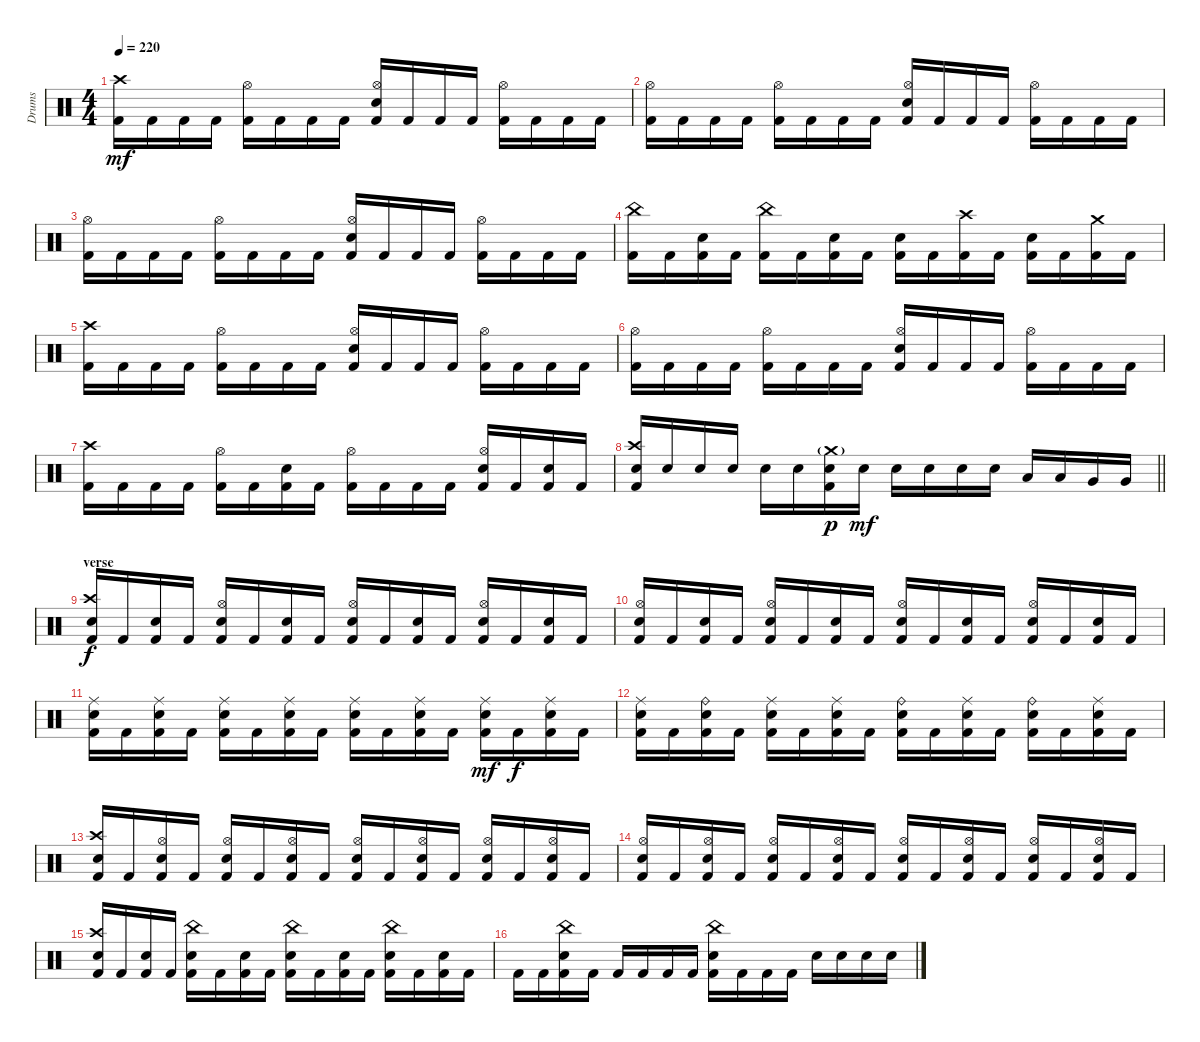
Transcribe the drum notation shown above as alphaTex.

\track ("Drums" "Drums") {instrument percussion}
\staff {score}
\articulation defaults
\ts (4 4)
\tempo 220
\clef neutral
\ks c
("Kick (hit) 2" "Crash high (hit)").16{dy mf} "Kick (hit) 2".16 "Kick (hit) 2".16 "Kick (hit) 2".16 ("Kick (hit) 2" "Hi-Hat (open)").16 "Kick (hit) 2".16 "Kick (hit) 2".16 "Kick (hit) 2".16 ("Kick (hit) 2" "Electric Snare (hit)" "Hi-Hat (open)").16 "Kick (hit) 2".16 "Kick (hit) 2".16 "Kick (hit) 2".16 ("Kick (hit) 2" "Hi-Hat (open)").16 "Kick (hit) 2".16 "Kick (hit) 2".16 "Kick (hit) 2".16 |
("Kick (hit) 2" "Hi-Hat (open)").16 "Kick (hit) 2".16 "Kick (hit) 2".16 "Kick (hit) 2".16 ("Kick (hit) 2" "Hi-Hat (open)").16 "Kick (hit) 2".16 "Kick (hit) 2".16 "Kick (hit) 2".16 ("Kick (hit) 2" "Electric Snare (hit)" "Hi-Hat (open)").16 "Kick (hit) 2".16 "Kick (hit) 2".16 "Kick (hit) 2".16 ("Kick (hit) 2" "Hi-Hat (open)").16 "Kick (hit) 2".16 "Kick (hit) 2".16 "Kick (hit) 2".16 |
("Kick (hit) 2" "Hi-Hat (open)").16 "Kick (hit) 2".16 "Kick (hit) 2".16 "Kick (hit) 2".16 ("Kick (hit) 2" "Hi-Hat (open)").16 "Kick (hit) 2".16 "Kick (hit) 2".16 "Kick (hit) 2".16 ("Kick (hit) 2" "Electric Snare (hit)" "Hi-Hat (open)").16 "Kick (hit) 2".16 "Kick (hit) 2".16 "Kick (hit) 2".16 ("Kick (hit) 2" "Hi-Hat (open)").16 "Kick (hit) 2".16 "Kick (hit) 2".16 "Kick (hit) 2".16 |
("Kick (hit) 2" "China (hit)").16 "Kick (hit) 2".16 ("Kick (hit) 2" "Electric Snare (hit)").16 "Kick (hit) 2".16 ("Kick (hit) 2" "China (hit)").16 "Kick (hit) 2".16 ("Kick (hit) 2" "Electric Snare (hit)").16 "Kick (hit) 2".16 ("Kick (hit) 2" "Electric Snare (hit)").16 "Kick (hit) 2".16 ("Kick (hit) 2" "Crash high (hit)").16 "Kick (hit) 2".16 ("Kick (hit) 2" "Electric Snare (hit)").16 "Kick (hit) 2".16 ("Kick (hit) 2" "Crash medium (hit)").16 "Kick (hit) 2".16 |
("Kick (hit) 2" "Crash high (hit)").16 "Kick (hit) 2".16 "Kick (hit) 2".16 "Kick (hit) 2".16 ("Kick (hit) 2" "Hi-Hat (open)").16 "Kick (hit) 2".16 "Kick (hit) 2".16 "Kick (hit) 2".16 ("Kick (hit) 2" "Electric Snare (hit)" "Hi-Hat (open)").16 "Kick (hit) 2".16 "Kick (hit) 2".16 "Kick (hit) 2".16 ("Kick (hit) 2" "Hi-Hat (open)").16 "Kick (hit) 2".16 "Kick (hit) 2".16 "Kick (hit) 2".16 |
("Kick (hit) 2" "Hi-Hat (open)").16 "Kick (hit) 2".16 "Kick (hit) 2".16 "Kick (hit) 2".16 ("Kick (hit) 2" "Hi-Hat (open)").16 "Kick (hit) 2".16 "Kick (hit) 2".16 "Kick (hit) 2".16 ("Kick (hit) 2" "Electric Snare (hit)" "Hi-Hat (open)").16 "Kick (hit) 2".16 "Kick (hit) 2".16 "Kick (hit) 2".16 ("Kick (hit) 2" "Hi-Hat (open)").16 "Kick (hit) 2".16 "Kick (hit) 2".16 "Kick (hit) 2".16 |
("Kick (hit) 2" "Crash high (hit)").16 "Kick (hit) 2".16 "Kick (hit) 2".16 "Kick (hit) 2".16 ("Kick (hit) 2" "Hi-Hat (open)").16 "Kick (hit) 2".16 ("Kick (hit) 2" "Electric Snare (hit)").16 "Kick (hit) 2".16 ("Kick (hit) 2" "Hi-Hat (open)").16 "Kick (hit) 2".16 "Kick (hit) 2".16 "Kick (hit) 2".16 ("Kick (hit) 2" "Electric Snare (hit)" "Hi-Hat (open)").16 "Kick (hit) 2".16 ("Kick (hit) 2" "Electric Snare (hit)").16 "Kick (hit) 2".16 |
\barLineRight lightlight
("Electric Snare (hit)" "Kick (hit) 2" "Crash high (hit)").16 "Electric Snare (hit)".16 "Electric Snare (hit)".16 "Electric Snare (hit)".16 "Electric Snare (hit)".16 "Electric Snare (hit)".16 ("Electric Snare (hit)" "Kick (hit) 2" "Crash medium (hit)"{g}).16{dy p} "Electric Snare (hit)".16{dy mf} "Electric Snare (hit)".16 "Electric Snare (hit)".16 "Electric Snare (hit)".16 "Electric Snare (hit)".16 "Low Tom (hit)".16 "Low Tom (hit)".16 "Very Low Tom (hit)".16 "Very Low Tom (hit)".16 |
\section ("" "verse ")
("Electric Snare (hit)" "Kick (hit) 2" "Crash high (hit)").16{dy f} "Kick (hit) 2".16 ("Electric Snare (hit)" "Kick (hit) 2").16 "Kick (hit) 2".16 ("Electric Snare (hit)" "Kick (hit) 2" "Hi-Hat (open)").16 "Kick (hit) 2".16 ("Electric Snare (hit)" "Kick (hit) 2").16 "Kick (hit) 2".16 ("Electric Snare (hit)" "Kick (hit) 2" "Hi-Hat (open)").16 "Kick (hit) 2".16 ("Electric Snare (hit)" "Kick (hit) 2").16 "Kick (hit) 2".16 ("Electric Snare (hit)" "Kick (hit) 2" "Hi-Hat (open)").16 "Kick (hit) 2".16 ("Electric Snare (hit)" "Kick (hit) 2").16 "Kick (hit) 2".16 |
("Electric Snare (hit)" "Kick (hit) 2" "Hi-Hat (open)").16 "Kick (hit) 2".16 ("Electric Snare (hit)" "Kick (hit) 2").16 "Kick (hit) 2".16 ("Electric Snare (hit)" "Kick (hit) 2" "Hi-Hat (open)").16 "Kick (hit) 2".16 ("Electric Snare (hit)" "Kick (hit) 2").16 "Kick (hit) 2".16 ("Electric Snare (hit)" "Kick (hit) 2" "Hi-Hat (open)").16 "Kick (hit) 2".16 ("Electric Snare (hit)" "Kick (hit) 2").16 "Kick (hit) 2".16 ("Electric Snare (hit)" "Kick (hit) 2" "Hi-Hat (open)").16 "Kick (hit) 2".16 ("Electric Snare (hit)" "Kick (hit) 2").16 "Kick (hit) 2".16 |
("Electric Snare (hit)" "Kick (hit) 2" "Ride (middle)").16 "Kick (hit) 2".16 ("Electric Snare (hit)" "Kick (hit) 2" "Ride (middle)").16 "Kick (hit) 2".16 ("Electric Snare (hit)" "Kick (hit) 2" "Ride (middle)").16 "Kick (hit) 2".16 ("Electric Snare (hit)" "Kick (hit) 2" "Ride (middle)").16 "Kick (hit) 2".16 ("Electric Snare (hit)" "Kick (hit) 2" "Ride (middle)").16 "Kick (hit) 2".16 ("Electric Snare (hit)" "Kick (hit) 2" "Ride (middle)").16 "Kick (hit) 2".16 ("Electric Snare (hit)" "Kick (hit) 2" "Ride (middle)").16{dy mf} "Kick (hit) 2".16{dy f} ("Electric Snare (hit)" "Kick (hit) 2" "Ride (middle)").16 "Kick (hit) 2".16 |
("Electric Snare (hit)" "Kick (hit) 2" "Ride (middle)").16 "Kick (hit) 2".16 ("Electric Snare (hit)" "Kick (hit) 2" "Ride (bell)").16 "Kick (hit) 2".16 ("Electric Snare (hit)" "Kick (hit) 2" "Ride (middle)").16 "Kick (hit) 2".16 ("Electric Snare (hit)" "Kick (hit) 2" "Ride (middle)").16 "Kick (hit) 2".16 ("Electric Snare (hit)" "Kick (hit) 2" "Ride (bell)").16 "Kick (hit) 2".16 ("Electric Snare (hit)" "Kick (hit) 2" "Ride (middle)").16 "Kick (hit) 2".16 ("Electric Snare (hit)" "Kick (hit) 2" "Ride (bell)").16 "Kick (hit) 2".16 ("Electric Snare (hit)" "Kick (hit) 2" "Ride (middle)").16 "Kick (hit) 2".16 |
("Electric Snare (hit)" "Kick (hit) 2" "Crash high (hit)").16 "Kick (hit) 2".16 ("Electric Snare (hit)" "Kick (hit) 2" "Hi-Hat (open)").16 "Kick (hit) 2".16 ("Electric Snare (hit)" "Kick (hit) 2" "Hi-Hat (open)").16 "Kick (hit) 2".16 ("Electric Snare (hit)" "Kick (hit) 2" "Hi-Hat (open)").16 "Kick (hit) 2".16 ("Electric Snare (hit)" "Kick (hit) 2" "Hi-Hat (open)").16 "Kick (hit) 2".16 ("Electric Snare (hit)" "Kick (hit) 2" "Hi-Hat (open)").16 "Kick (hit) 2".16 ("Electric Snare (hit)" "Kick (hit) 2" "Hi-Hat (open)").16 "Kick (hit) 2".16 ("Electric Snare (hit)" "Kick (hit) 2" "Hi-Hat (open)").16 "Kick (hit) 2".16 |
("Electric Snare (hit)" "Kick (hit) 2" "Hi-Hat (open)").16 "Kick (hit) 2".16 ("Electric Snare (hit)" "Kick (hit) 2" "Hi-Hat (open)").16 "Kick (hit) 2".16 ("Electric Snare (hit)" "Kick (hit) 2" "Hi-Hat (open)").16 "Kick (hit) 2".16 ("Electric Snare (hit)" "Kick (hit) 2" "Hi-Hat (open)").16 "Kick (hit) 2".16 ("Electric Snare (hit)" "Kick (hit) 2" "Hi-Hat (open)").16 "Kick (hit) 2".16 ("Electric Snare (hit)" "Kick (hit) 2" "Hi-Hat (open)").16 "Kick (hit) 2".16 ("Electric Snare (hit)" "Kick (hit) 2" "Hi-Hat (open)").16 "Kick (hit) 2".16 ("Electric Snare (hit)" "Kick (hit) 2" "Hi-Hat (open)").16 "Kick (hit) 2".16 |
("Kick (hit) 2" "Electric Snare (hit)" "Crash high (hit)").16 "Kick (hit) 2".16 ("Kick (hit) 2" "Electric Snare (hit)").16 "Kick (hit) 2".16 ("Kick (hit) 2" "Electric Snare (hit)" "China (hit)").16 "Kick (hit) 2".16 ("Kick (hit) 2" "Electric Snare (hit)").16 "Kick (hit) 2".16 ("Kick (hit) 2" "Electric Snare (hit)" "China (hit)").16 "Kick (hit) 2".16 ("Kick (hit) 2" "Electric Snare (hit)").16 "Kick (hit) 2".16 ("Kick (hit) 2" "Electric Snare (hit)" "China (hit)").16 "Kick (hit) 2".16 ("Kick (hit) 2" "Electric Snare (hit)").16 "Kick (hit) 2".16 |
"Kick (hit) 2".16 "Kick (hit) 2".16 ("Kick (hit) 2" "Electric Snare (hit)" "China (hit)").16 "Kick (hit) 2".16 "Kick (hit) 2".16 "Kick (hit) 2".16 "Kick (hit) 2".16 "Kick (hit) 2".16 ("Kick (hit) 2" "Electric Snare (hit)" "China (hit)").16 "Kick (hit) 2".16 "Kick (hit) 2".16 "Kick (hit) 2".16 "Electric Snare (hit)".16 "Electric Snare (hit)".16 "Electric Snare (hit)".16 "Electric Snare (hit)".16
